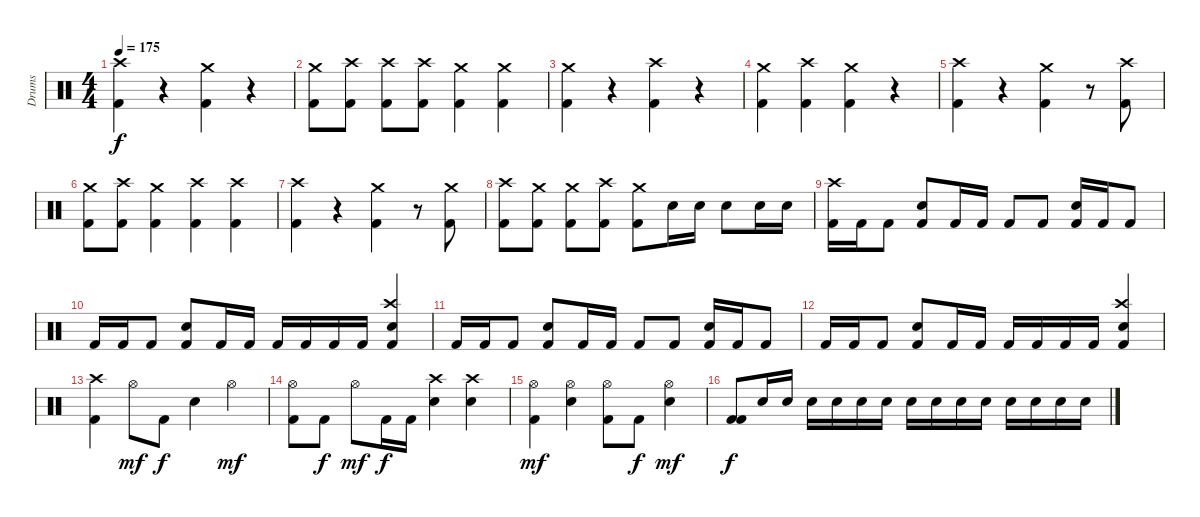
\track ("Drums" "Drums") {instrument percussion}
\staff {score}
\articulation defaults
\ts (4 4)
\tempo 175
\clef neutral
\ks c
("Kick (hit) 2" "Crash high (hit)").4{dy f} r.4 ("Kick (hit) 2" "Crash medium (hit)").4 r.4 |
("Kick (hit) 2" "Crash medium (hit)").8 ("Kick (hit) 2" "Crash high (hit)").8 ("Kick (hit) 2" "Crash high (hit)").8 ("Kick (hit) 2" "Crash high (hit)").8 ("Kick (hit) 2" "Crash medium (hit)").4 ("Kick (hit) 2" "Crash medium (hit)").4 |
("Kick (hit) 2" "Crash medium (hit)").4 r.4 ("Kick (hit) 2" "Crash high (hit)").4 r.4 |
("Kick (hit) 2" "Crash medium (hit)").4 ("Kick (hit) 2" "Crash high (hit)").4 ("Kick (hit) 2" "Crash medium (hit)").4 r.4 |
("Kick (hit) 2" "Crash high (hit)").4 r.4 ("Kick (hit) 2" "Crash medium (hit)").4 r.8 ("Kick (hit) 2" "Crash high (hit)").8 |
("Kick (hit) 2" "Crash medium (hit)").8 ("Kick (hit) 2" "Crash high (hit)").8 ("Kick (hit) 2" "Crash medium (hit)").4 ("Kick (hit) 2" "Crash high (hit)").4 ("Kick (hit) 2" "Crash high (hit)").4 |
("Kick (hit) 2" "Crash high (hit)").4 r.4 ("Kick (hit) 2" "Crash medium (hit)").4 r.8 ("Kick (hit) 2" "Crash medium (hit)").8 |
("Kick (hit) 2" "Crash high (hit)").8 ("Kick (hit) 2" "Crash medium (hit)").8 ("Kick (hit) 2" "Crash medium (hit)").8 ("Kick (hit) 2" "Crash high (hit)").8 ("Kick (hit) 2" "Crash medium (hit)").8 "Electric Snare (hit)".16 "Electric Snare (hit)".16 "Electric Snare (hit)".8 "Electric Snare (hit)".16 "Electric Snare (hit)".16 |
("Kick (hit) 2" "Crash high (hit)").16 "Kick (hit) 2".16 "Kick (hit) 2".8 ("Kick (hit) 2" "Electric Snare (hit)").8 "Kick (hit) 2".16 "Kick (hit) 2".16 "Kick (hit) 2".8 "Kick (hit) 2".8 ("Kick (hit) 2" "Electric Snare (hit)").16 "Kick (hit) 2".16 "Kick (hit) 2".8 |
"Kick (hit) 2".16 "Kick (hit) 2".16 "Kick (hit) 2".8 ("Kick (hit) 2" "Electric Snare (hit)").8 "Kick (hit) 2".16 "Kick (hit) 2".16 "Kick (hit) 2".16 "Kick (hit) 2".16 "Kick (hit) 2".16 "Kick (hit) 2".16 ("Kick (hit) 2" "Electric Snare (hit)" "Crash high (hit)").4 |
"Kick (hit) 2".16 "Kick (hit) 2".16 "Kick (hit) 2".8 ("Kick (hit) 2" "Electric Snare (hit)").8 "Kick (hit) 2".16 "Kick (hit) 2".16 "Kick (hit) 2".8 "Kick (hit) 2".8 ("Kick (hit) 2" "Electric Snare (hit)").16 "Kick (hit) 2".16 "Kick (hit) 2".8 |
"Kick (hit) 2".16 "Kick (hit) 2".16 "Kick (hit) 2".8 ("Kick (hit) 2" "Electric Snare (hit)").8 "Kick (hit) 2".16 "Kick (hit) 2".16 "Kick (hit) 2".16 "Kick (hit) 2".16 "Kick (hit) 2".16 "Kick (hit) 2".16 ("Kick (hit) 2" "Electric Snare (hit)" "Crash high (hit)").4 |
("Kick (hit) 2" "Crash high (hit)").4 "Hi-Hat (open)".8{dy mf} "Kick (hit) 2".8{dy f} "Electric Snare (hit)".4 "Hi-Hat (open)".4{dy mf} |
("Kick (hit) 2" "Hi-Hat (open)").8 "Kick (hit) 2".8{dy f} "Hi-Hat (open)".8{dy mf} "Kick (hit) 2".16{dy f} "Kick (hit) 2".16 ("Electric Snare (hit)" "Crash high (hit)").4 ("Electric Snare (hit)" "Crash high (hit)").4 |
("Kick (hit) 2" "Hi-Hat (open)").4{dy mf} ("Electric Snare (hit)" "Hi-Hat (open)").4 ("Kick (hit) 2" "Hi-Hat (open)").8 "Kick (hit) 2".8{dy f} ("Electric Snare (hit)" "Hi-Hat (open)").4{dy mf} |
("Kick (hit) 2" "Kick (hit) 2").8{dy f} "Electric Snare (hit)".16 "Electric Snare (hit)".16 "Electric Snare (hit)".16 "Electric Snare (hit)".16 "Electric Snare (hit)".16 "Electric Snare (hit)".16 "Electric Snare (hit)".16 "Electric Snare (hit)".16 "Electric Snare (hit)".16 "Electric Snare (hit)".16 "Electric Snare (hit)".16 "Electric Snare (hit)".16 "Electric Snare (hit)".16 "Electric Snare (hit)".16
